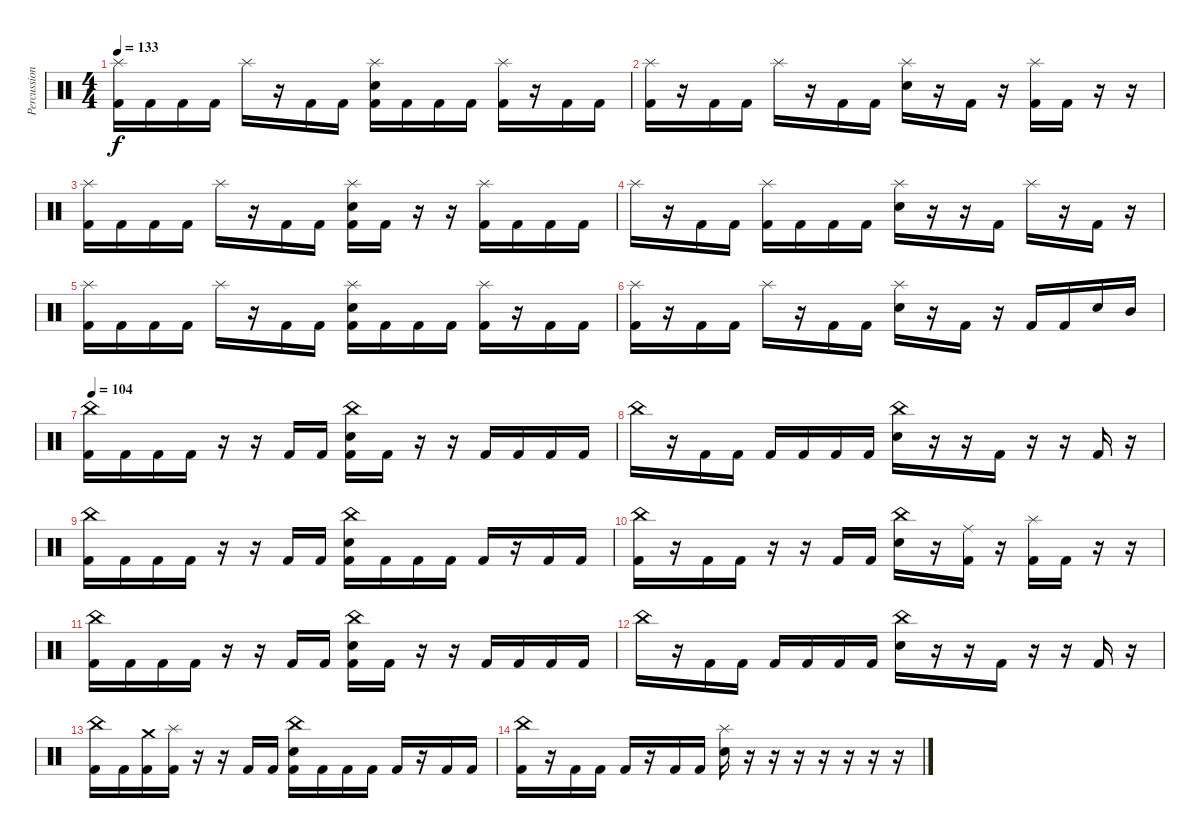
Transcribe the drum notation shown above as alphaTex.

\track ("Percussion" "Percussion") {instrument percussion}
\staff {score}
\articulation defaults
\ts (4 4)
\tempo 133
\clef neutral
\ks c
("Splash (hit)" "Kick (hit) 2").16{dy f} "Kick (hit) 2".16 "Kick (hit) 2".16 "Kick (hit) 2".16 "Splash (hit)".16 r.16 "Kick (hit) 2".16 "Kick (hit) 2".16 ("Splash (hit)" "Electric Snare (hit)" "Kick (hit) 2").16 "Kick (hit) 2".16 "Kick (hit) 2".16 "Kick (hit) 2".16 ("Splash (hit)" "Kick (hit) 2").16 r.16 "Kick (hit) 2".16 "Kick (hit) 2".16 |
("Splash (hit)" "Kick (hit) 2").16 r.16 "Kick (hit) 2".16 "Kick (hit) 2".16 "Splash (hit)".16 r.16 "Kick (hit) 2".16 "Kick (hit) 2".16 ("Splash (hit)" "Electric Snare (hit)").16 r.16 "Kick (hit) 2".16 r.16 ("Splash (hit)" "Kick (hit) 2").16 "Kick (hit) 2".16 r.16 r.16 |
("Splash (hit)" "Kick (hit) 2").16 "Kick (hit) 2".16 "Kick (hit) 2".16 "Kick (hit) 2".16 "Splash (hit)".16 r.16 "Kick (hit) 2".16 "Kick (hit) 2".16 ("Splash (hit)" "Electric Snare (hit)" "Kick (hit) 2").16 "Kick (hit) 2".16 r.16 r.16 ("Splash (hit)" "Kick (hit) 2").16 "Kick (hit) 2".16 "Kick (hit) 2".16 "Kick (hit) 2".16 |
"Splash (hit)".16 r.16 "Kick (hit) 2".16 "Kick (hit) 2".16 ("Splash (hit)" "Kick (hit) 2").16 "Kick (hit) 2".16 "Kick (hit) 2".16 "Kick (hit) 2".16 ("Splash (hit)" "Electric Snare (hit)").16 r.16 r.16 "Kick (hit) 2".16 "Splash (hit)".16 r.16 "Kick (hit) 2".16 r.16 |
("Splash (hit)" "Kick (hit) 2").16 "Kick (hit) 2".16 "Kick (hit) 2".16 "Kick (hit) 2".16 "Splash (hit)".16 r.16 "Kick (hit) 2".16 "Kick (hit) 2".16 ("Splash (hit)" "Electric Snare (hit)" "Kick (hit) 2").16 "Kick (hit) 2".16 "Kick (hit) 2".16 "Kick (hit) 2".16 ("Splash (hit)" "Kick (hit) 2").16 r.16 "Kick (hit) 2".16 "Kick (hit) 2".16 |
("Splash (hit)" "Kick (hit) 2").16 r.16 "Kick (hit) 2".16 "Kick (hit) 2".16 "Splash (hit)".16 r.16 "Kick (hit) 2".16 "Kick (hit) 2".16 ("Splash (hit)" "Electric Snare (hit)").16 r.16 "Kick (hit) 2".16 r.16 "Kick (hit) 2".16 "Kick (hit) 2".16 "Electric Snare (hit)".16 "Mid Tom (hit)".16 |
\tempo 104
("China (hit)" "Kick (hit) 2").16 "Kick (hit) 2".16 "Kick (hit) 2".16 "Kick (hit) 2".16 r.16 r.16 "Kick (hit) 2".16 "Kick (hit) 2".16 ("China (hit)" "Electric Snare (hit)" "Kick (hit) 2").16 "Kick (hit) 2".16 r.16 r.16 "Kick (hit) 2".16 "Kick (hit) 2".16 "Kick (hit) 2".16 "Kick (hit) 2".16 |
"China (hit)".16 r.16 "Kick (hit) 2".16 "Kick (hit) 2".16 "Kick (hit) 2".16 "Kick (hit) 2".16 "Kick (hit) 2".16 "Kick (hit) 2".16 ("China (hit)" "Electric Snare (hit)").16 r.16 r.16 "Kick (hit) 2".16 r.16 r.16 "Kick (hit) 2".16 r.16 |
("China (hit)" "Kick (hit) 2").16 "Kick (hit) 2".16 "Kick (hit) 2".16 "Kick (hit) 2".16 r.16 r.16 "Kick (hit) 2".16 "Kick (hit) 2".16 ("China (hit)" "Electric Snare (hit)" "Kick (hit) 2").16 "Kick (hit) 2".16 "Kick (hit) 2".16 "Kick (hit) 2".16 "Kick (hit) 2".16 r.16 "Kick (hit) 2".16 "Kick (hit) 2".16 |
("China (hit)" "Kick (hit) 2").16 r.16 "Kick (hit) 2".16 "Kick (hit) 2".16 r.16 r.16 "Kick (hit) 2".16 "Kick (hit) 2".16 ("China (hit)" "Electric Snare (hit)").16 r.16 ("Ride (middle)" "Kick (hit) 2").16 r.16 ("Splash (hit)" "Kick (hit) 2").16 "Kick (hit) 2".16 r.16 r.16 |
("China (hit)" "Kick (hit) 2").16 "Kick (hit) 2".16 "Kick (hit) 2".16 "Kick (hit) 2".16 r.16 r.16 "Kick (hit) 2".16 "Kick (hit) 2".16 ("China (hit)" "Electric Snare (hit)" "Kick (hit) 2").16 "Kick (hit) 2".16 r.16 r.16 "Kick (hit) 2".16 "Kick (hit) 2".16 "Kick (hit) 2".16 "Kick (hit) 2".16 |
"China (hit)".16 r.16 "Kick (hit) 2".16 "Kick (hit) 2".16 "Kick (hit) 2".16 "Kick (hit) 2".16 "Kick (hit) 2".16 "Kick (hit) 2".16 ("China (hit)" "Electric Snare (hit)").16 r.16 r.16 "Kick (hit) 2".16 r.16 r.16 "Kick (hit) 2".16 r.16 |
("China (hit)" "Kick (hit) 2").16 "Kick (hit) 2".16 ("Crash medium (hit)" "Kick (hit) 2").16 ("Splash (hit)" "Kick (hit) 2").16 r.16 r.16 "Kick (hit) 2".16 "Kick (hit) 2".16 ("China (hit)" "Electric Snare (hit)" "Kick (hit) 2").16 "Kick (hit) 2".16 "Kick (hit) 2".16 "Kick (hit) 2".16 "Kick (hit) 2".16 r.16 "Kick (hit) 2".16 "Kick (hit) 2".16 |
("China (hit)" "Kick (hit) 2").16 r.16 "Kick (hit) 2".16 "Kick (hit) 2".16 "Kick (hit) 2".16 r.16 "Kick (hit) 2".16 "Kick (hit) 2".16 ("Splash (hit)" "Electric Snare (hit)").16 r.16 r.16 r.16 r.16 r.16 r.16 r.16
